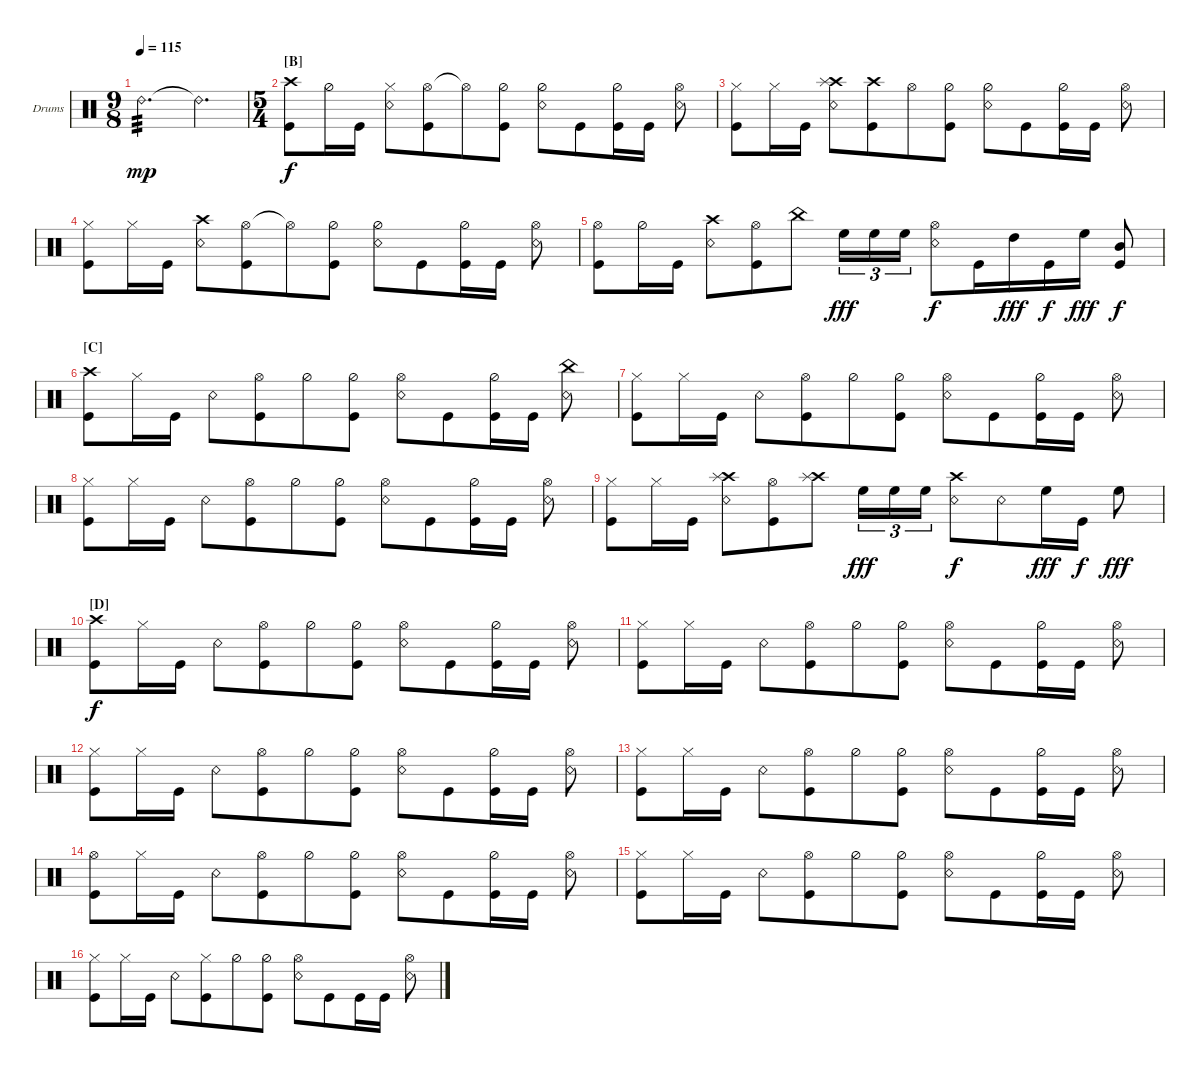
\defaultSystemsLayout 4
\bracketExtendMode groupsimilarinstruments
\firstSystemTrackNameOrientation horizontal
\otherSystemsTrackNameOrientation horizontal
\track ("Drumkit" "Drums") {instrument percussion}
\staff {score}
\articulation defaults
\ts (9 8)
\beaming (8 3 3 4)
\tempo 115
\clef neutral
\scale
0.390805
\ks c "Ride (bell) 2".2{d tp 3 dy mp} "Ride (bell) 2"{t}.4{d}
|
\ts (5 4)
\beaming (8 2 4 3 1)
\section ("B" "")
\scale
0.390805 ("Kick (hit)" "Crash high (hit)").8{dy f} "Hi-Hat (half)".16 "Kick (hit)".16 ("Snare (rim shot)" "Hi-Hat (closed)").8 ("Hi-Hat (open)" "Kick (hit)").8 "Hi-Hat (open)"{t}.8 ("Hi-Hat (half)" "Kick (hit)").8 ("Snare (rim shot)" "Hi-Hat (half)").8 "Kick (hit)".8 ("Hi-Hat (half)" "Kick (hit)").16 "Kick (hit)".16 ("Hi-Hat (open)" "Snare (rim shot)").8 |
\scale
0.333333 ("Kick (hit)" "Hi-Hat (closed)").8 "Hi-Hat (closed)".16 "Kick (hit)".16 ("Snare (rim shot)" "Crash high (hit)" "Splash (hit)").8 ("Kick (hit)" "Crash high (hit)").8 "Hi-Hat (open)".8 ("Hi-Hat (half)" "Kick (hit)").8 ("Snare (rim shot)" "Hi-Hat (half)").8 "Kick (hit)".8 ("Hi-Hat (half)" "Kick (hit)").16 "Kick (hit)".16 ("Hi-Hat (open)" "Snare (rim shot)").8 |
\scale
0.333333 ("Kick (hit)" "Hi-Hat (closed)").8 "Hi-Hat (closed)".16 "Kick (hit)".16 ("Snare (rim shot)" "Crash high (hit)").8 ("Hi-Hat (open)" "Kick (hit)").8 "Hi-Hat (open)"{t}.8 ("Hi-Hat (half)" "Kick (hit)").8 ("Snare (rim shot)" "Hi-Hat (half)").8 "Kick (hit)".8 ("Hi-Hat (half)" "Kick (hit)").16 "Kick (hit)".16 ("Hi-Hat (open)" "Snare (rim shot)").8 |
\scale
0.333333 ("Kick (hit)" "Hi-Hat (open)").8 "Hi-Hat (half)".16 "Kick (hit)".16 ("Snare (rim shot)" "Crash high (hit)").8 ("Hi-Hat (open)" "Kick (hit)").8 "China (hit)".8 "High Floor Tom (hit)".16{tu (3 2) dy fff} "High Floor Tom (hit)".16{tu (3 2)} "High Floor Tom (hit)".16{tu (3 2)} ("Hi-Hat (open)" "Snare (rim shot)").8{dy f} "Kick (hit)".16 "High Tom (hit)".16{dy fff} "Kick (hit)".16{dy f} "High Floor Tom (hit)".16{dy fff} ("Mid Tom (hit)" "Kick (hit)").8{dy f} |
\section ("C" "")
\scale
0.333333 ("Kick (hit)" "Crash high (hit)").8 "Hi-Hat (closed)".16 "Kick (hit)".16 "Snare (rim shot)".8 ("Hi-Hat (open)" "Kick (hit)").8 "Hi-Hat (half)".8 ("Hi-Hat (half)" "Kick (hit)").8 ("Snare (rim shot)" "Hi-Hat (open)").8 "Kick (hit)".8 ("Hi-Hat (half)" "Kick (hit)").16 "Kick (hit)".16 ("Snare (rim shot)" "China (hit)").8 |
\scale
0.333333 ("Kick (hit)" "Hi-Hat (closed)").8 "Hi-Hat (closed)".16 "Kick (hit)".16 "Snare (rim shot)".8 ("Hi-Hat (open)" "Kick (hit)").8 "Hi-Hat (half)".8 ("Hi-Hat (half)" "Kick (hit)").8 ("Snare (rim shot)" "Hi-Hat (open)").8 "Kick (hit)".8 ("Hi-Hat (half)" "Kick (hit)").16 "Kick (hit)".16 ("Snare (rim shot)" "Hi-Hat (open)").8 |
\scale
0.333333 ("Kick (hit)" "Hi-Hat (closed)").8 "Hi-Hat (closed)".16 "Kick (hit)".16 "Snare (rim shot)".8 ("Hi-Hat (open)" "Kick (hit)").8 "Hi-Hat (half)".8 ("Hi-Hat (half)" "Kick (hit)").8 ("Snare (rim shot)" "Hi-Hat (open)").8 "Kick (hit)".8 ("Hi-Hat (half)" "Kick (hit)").16 "Kick (hit)".16 ("Snare (rim shot)" "Hi-Hat (open)").8 |
\scale
0.333333 ("Kick (hit)" "Hi-Hat (closed)").8 "Hi-Hat (closed)".16 "Kick (hit)".16 ("Snare (rim shot)" "Crash high (hit)" "Splash (hit)").8 ("Hi-Hat (open)" "Kick (hit)").8 ("Crash high (hit)" "Splash (hit)").8 "High Floor Tom (hit)".16{tu (3 2) dy fff} "High Floor Tom (hit)".16{tu (3 2)} "High Floor Tom (hit)".16{tu (3 2)} ("Snare (rim shot)" "Crash high (hit)").8{dy f} "Snare (rim shot)".8 "High Floor Tom (hit)".16{dy fff} "Kick (hit)".16{dy f} "High Floor Tom (hit)".8{dy fff} |
\section ("D" "")
\scale
0.333333 ("Kick (hit)" "Crash high (hit)").8{dy f} "Hi-Hat (closed)".16 "Kick (hit)".16 "Snare (rim shot)".8 ("Hi-Hat (open)" "Kick (hit)").8 "Hi-Hat (half)".8 ("Hi-Hat (half)" "Kick (hit)").8 ("Snare (rim shot)" "Hi-Hat (open)").8 "Kick (hit)".8 ("Hi-Hat (half)" "Kick (hit)").16 "Kick (hit)".16 ("Snare (rim shot)" "Hi-Hat (open)").8 |
\scale
0.333333 ("Kick (hit)" "Hi-Hat (closed)").8 "Hi-Hat (closed)".16 "Kick (hit)".16 "Snare (rim shot)".8 ("Hi-Hat (open)" "Kick (hit)").8 "Hi-Hat (half)".8 ("Hi-Hat (half)" "Kick (hit)").8 ("Snare (rim shot)" "Hi-Hat (open)").8 "Kick (hit)".8 ("Hi-Hat (half)" "Kick (hit)").16 "Kick (hit)".16 ("Snare (rim shot)" "Hi-Hat (open)").8 |
\scale
0.333333 ("Kick (hit)" "Hi-Hat (closed)").8 "Hi-Hat (closed)".16 "Kick (hit)".16 "Snare (rim shot)".8 ("Hi-Hat (open)" "Kick (hit)").8 "Hi-Hat (half)".8 ("Hi-Hat (half)" "Kick (hit)").8 ("Snare (rim shot)" "Hi-Hat (open)").8 "Kick (hit)".8 ("Hi-Hat (half)" "Kick (hit)").16 "Kick (hit)".16 ("Snare (rim shot)" "Hi-Hat (open)").8 |
\scale
0.333333 ("Kick (hit)" "Hi-Hat (closed)").8 "Hi-Hat (closed)".16 "Kick (hit)".16 "Snare (rim shot)".8 ("Hi-Hat (open)" "Kick (hit)").8 "Hi-Hat (half)".8 ("Hi-Hat (half)" "Kick (hit)").8 ("Snare (rim shot)" "Hi-Hat (open)").8 "Kick (hit)".8 ("Hi-Hat (half)" "Kick (hit)").16 "Kick (hit)".16 ("Snare (rim shot)" "Hi-Hat (open)").8 |
\scale
0.333333 ("Kick (hit)" "Hi-Hat (open)").8 "Hi-Hat (closed)".16 "Kick (hit)".16 "Snare (rim shot)".8 ("Hi-Hat (open)" "Kick (hit)").8 "Hi-Hat (half)".8 ("Hi-Hat (half)" "Kick (hit)").8 ("Snare (rim shot)" "Hi-Hat (open)").8 "Kick (hit)".8 ("Hi-Hat (half)" "Kick (hit)").16 "Kick (hit)".16 ("Snare (rim shot)" "Hi-Hat (open)").8 |
\scale
0.333333 ("Kick (hit)" "Hi-Hat (closed)").8 "Hi-Hat (closed)".16 "Kick (hit)".16 "Snare (rim shot)".8 ("Hi-Hat (open)" "Kick (hit)").8 "Hi-Hat (half)".8 ("Hi-Hat (half)" "Kick (hit)").8 ("Snare (rim shot)" "Hi-Hat (open)").8 "Kick (hit)".8 ("Hi-Hat (half)" "Kick (hit)").16 "Kick (hit)".16 ("Snare (rim shot)" "Hi-Hat (open)").8 |
\scale
0.333333 ("Kick (hit)" "Hi-Hat (closed)").8 "Hi-Hat (closed)".16 "Kick (hit)".16 "Snare (rim shot)".8 ("Hi-Hat (closed)" "Kick (hit)").8 "Hi-Hat (half)".8 ("Hi-Hat (half)" "Kick (hit)").8 ("Snare (rim shot)" "Hi-Hat (open)").8 "Kick (hit)".8 "Kick (hit)".16 "Kick (hit)".16 ("Snare (rim shot)" "Hi-Hat (open)").8
